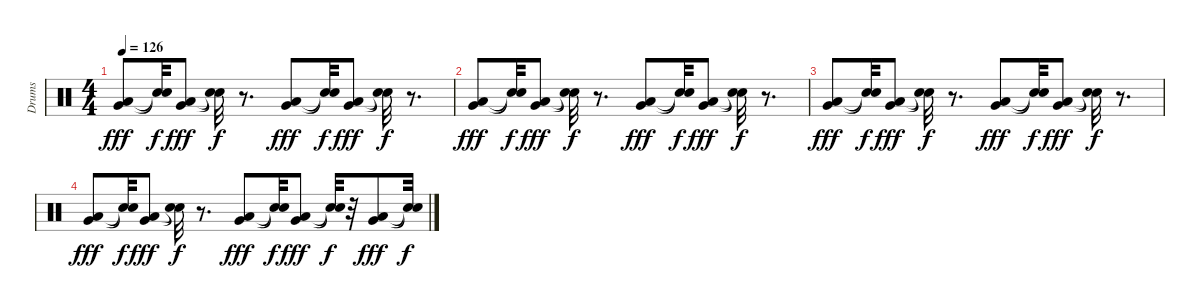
\track ("Drums" "Drums") {instrument percussion}
\staff {score}
\articulation defaults
\ts (4 4)
\tempo 126
\clef neutral
\ks c
("Very Low Tom (hit)" "Low Tom (hit)").8{dy fff volume 0} ("Snare (hit)"{t} "Snare (hit)"{t}).32{dy f} ("Very Low Tom (hit)" "Low Tom (hit)").8{dy fff} ("Snare (hit)"{t} "Snare (hit)"{t}).32{dy f} r.8{d} ("Very Low Tom (hit)" "Low Tom (hit)").8{dy fff} ("Snare (hit)"{t} "Snare (hit)"{t}).32{dy f} ("Very Low Tom (hit)" "Low Tom (hit)").8{dy fff} ("Snare (hit)"{t} "Snare (hit)"{t}).32{dy f} r.8{d} |
("Very Low Tom (hit)" "Low Tom (hit)").8{dy fff} ("Snare (hit)"{t} "Snare (hit)"{t}).32{dy f} ("Very Low Tom (hit)" "Low Tom (hit)").8{dy fff} ("Snare (hit)"{t} "Snare (hit)"{t}).32{dy f} r.8{d} ("Very Low Tom (hit)" "Low Tom (hit)").8{dy fff} ("Snare (hit)"{t} "Snare (hit)"{t}).32{dy f} ("Very Low Tom (hit)" "Low Tom (hit)").8{dy fff} ("Snare (hit)"{t} "Snare (hit)"{t}).32{dy f} r.8{d} |
("Very Low Tom (hit)" "Low Tom (hit)").8{dy fff} ("Snare (hit)"{t} "Snare (hit)"{t}).32{dy f} ("Very Low Tom (hit)" "Low Tom (hit)").8{dy fff} ("Snare (hit)"{t} "Snare (hit)"{t}).32{dy f} r.8{d} ("Very Low Tom (hit)" "Low Tom (hit)").8{dy fff} ("Snare (hit)"{t} "Snare (hit)"{t}).32{dy f} ("Very Low Tom (hit)" "Low Tom (hit)").8{dy fff} ("Snare (hit)"{t} "Snare (hit)"{t}).32{dy f} r.8{d} |
("Very Low Tom (hit)" "Low Tom (hit)").8{dy fff} ("Snare (hit)"{t} "Snare (hit)"{t}).32{dy f} ("Very Low Tom (hit)" "Low Tom (hit)").8{dy fff} ("Snare (hit)"{t} "Snare (hit)"{t}).32{dy f} r.8{d} ("Very Low Tom (hit)" "Low Tom (hit)").8{dy fff} ("Snare (hit)"{t} "Snare (hit)"{t}).32{dy f} ("Very Low Tom (hit)" "Low Tom (hit)").8{dy fff} ("Snare (hit)"{t} "Snare (hit)"{t}).32{dy f} r.32 ("Very Low Tom (hit)" "Low Tom (hit)").8{dy fff} ("Snare (hit)"{t} "Snare (hit)"{t}).32{dy f}
